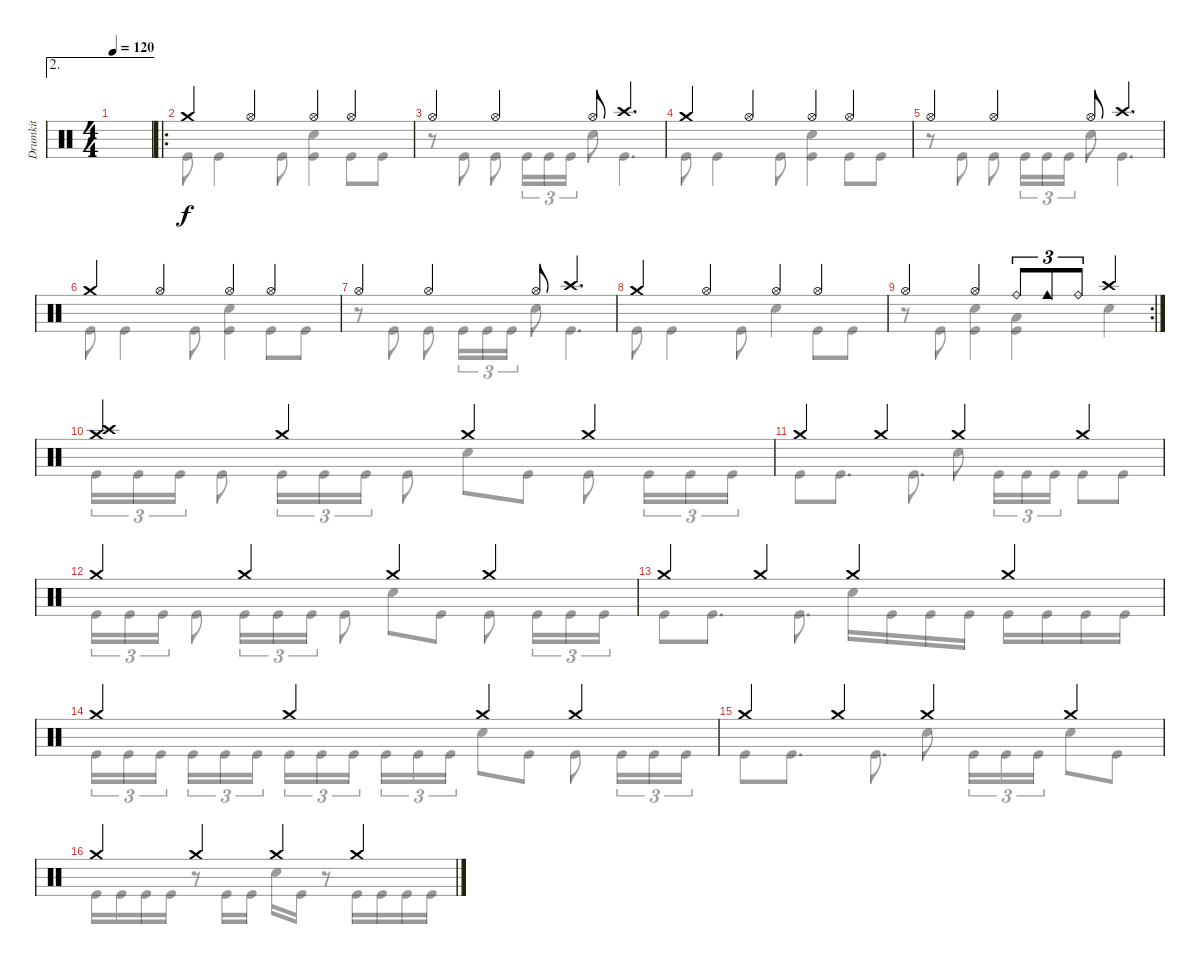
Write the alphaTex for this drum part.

\track ("Drumkit" "Drumkit") {instrument percussion}
\staff {score}
\articulation defaults
\voice
\ae 2
\ts (4 4)
\tempo 120
\clef neutral
\ks c
|
\ro "Crash medium (hit)".4 "Hi-Hat (open)".4 "Hi-Hat (open)".4 "Hi-Hat (open)".4
|
"Hi-Hat (open)".4 "Hi-Hat (open)".4 "Hi-Hat (open)".8 "Crash high (hit)".4{d} |
"Crash medium (hit)".4 "Hi-Hat (open)".4 "Hi-Hat (open)".4 "Hi-Hat (open)".4 |
"Hi-Hat (open)".4 "Hi-Hat (open)".4 "Hi-Hat (open)".8 "Crash high (hit)".4{d} |
"Crash medium (hit)".4 "Hi-Hat (open)".4 "Hi-Hat (open)".4 "Hi-Hat (open)".4 |
"Hi-Hat (open)".4 "Hi-Hat (open)".4 "Hi-Hat (open)".8 "Crash high (hit)".4{d} |
"Crash medium (hit)".4 "Hi-Hat (open)".4 "Hi-Hat (open)".4 "Hi-Hat (open)".4 |
\rc 2 "Hi-Hat (open)".4 "Hi-Hat (open)".4 "Ride (bell)".8{tu (3 2)} "Cowbell medium (hit)".8{tu (3 2)} "Ride (bell)".8{tu (3 2)} "Crash high (hit)".4
|
("Crash high (hit)" "Crash medium (hit)").4 "Crash medium (hit)".4 "Crash medium (hit)".4 "Crash medium (hit)".4 |
"Crash medium (hit)".4 "Crash medium (hit)".4 "Crash medium (hit)".4 "Crash medium (hit)".4 |
"Crash medium (hit)".4 "Crash medium (hit)".4 "Crash medium (hit)".4 "Crash medium (hit)".4 |
"Crash medium (hit)".4 "Crash medium (hit)".4 "Crash medium (hit)".4 "Crash medium (hit)".4 |
"Crash medium (hit)".4 "Crash medium (hit)".4 "Crash medium (hit)".4 "Crash medium (hit)".4 |
"Crash medium (hit)".4 "Crash medium (hit)".4 "Crash medium (hit)".4 "Crash medium (hit)".4 |
"Crash medium (hit)".4 "Crash medium (hit)".4 "Crash medium (hit)".4 "Crash medium (hit)".4
\voice
\clef neutral
\ottava regular
\simile none
\ks c
|
"Kick (hit)".8 "Kick (hit)".4 "Kick (hit)".8 ("Snare (hit) 2" "Kick (hit)").4 "Kick (hit)".8 "Kick (hit)".8 |
r.8 "Kick (hit)".8 "Kick (hit)".8 "Kick (hit)".16{tu (3 2)} "Kick (hit)".16{tu (3 2)} "Kick (hit)".16{tu (3 2)} "Snare (hit) 2".8 "Kick (hit)".4{d} |
"Kick (hit)".8 "Kick (hit)".4 "Kick (hit)".8 ("Snare (hit) 2" "Kick (hit)").4 "Kick (hit)".8 "Kick (hit)".8 |
r.8 "Kick (hit)".8 "Kick (hit)".8 "Kick (hit)".16{tu (3 2)} "Kick (hit)".16{tu (3 2)} "Kick (hit)".16{tu (3 2)} "Snare (hit) 2".8 "Kick (hit)".4{d} |
"Kick (hit)".8 "Kick (hit)".4 "Kick (hit)".8 ("Snare (hit) 2" "Kick (hit)").4 "Kick (hit)".8 "Kick (hit)".8 |
r.8 "Kick (hit)".8 "Kick (hit)".8 "Kick (hit)".16{tu (3 2)} "Kick (hit)".16{tu (3 2)} "Kick (hit)".16{tu (3 2)} "Snare (hit) 2".8 "Kick (hit)".4{d} |
"Kick (hit)".8 "Kick (hit)".4 "Kick (hit)".8 "Snare (hit) 2".4 "Kick (hit)".8 "Kick (hit)".8 |
r.8 "Kick (hit)".8 ("Snare (hit) 2" "Kick (hit)").4 ("Low Floor Tom (hit)" "Kick (hit)").4 "Snare (hit) 2".4 |
"Kick (hit)".16{tu (3 2)} "Kick (hit)".16{tu (3 2)} "Kick (hit)".16{tu (3 2)} "Kick (hit)".8 "Kick (hit)".16{tu (3 2)} "Kick (hit)".16{tu (3 2)} "Kick (hit)".16{tu (3 2)} "Kick (hit)".8 "Snare (hit) 2".8 "Kick (hit)".8 "Kick (hit)".8 "Kick (hit)".16{tu (3 2)} "Kick (hit)".16{tu (3 2)} "Kick (hit)".16{tu (3 2)} |
"Kick (hit)".8 "Kick (hit)".8{d} "Kick (hit)".8{d} "Snare (hit) 2".8 "Kick (hit)".16{tu (3 2)} "Kick (hit)".16{tu (3 2)} "Kick (hit)".16{tu (3 2)} "Kick (hit)".8 "Kick (hit)".8 |
"Kick (hit)".16{tu (3 2)} "Kick (hit)".16{tu (3 2)} "Kick (hit)".16{tu (3 2)} "Kick (hit)".8 "Kick (hit)".16{tu (3 2)} "Kick (hit)".16{tu (3 2)} "Kick (hit)".16{tu (3 2)} "Kick (hit)".8 "Snare (hit) 2".8 "Kick (hit)".8 "Kick (hit)".8 "Kick (hit)".16{tu (3 2)} "Kick (hit)".16{tu (3 2)} "Kick (hit)".16{tu (3 2)} |
"Kick (hit)".8 "Kick (hit)".8{d} "Kick (hit)".8{d} "Snare (hit) 2".16 "Kick (hit)".16 "Kick (hit)".16 "Kick (hit)".16 "Kick (hit)".16 "Kick (hit)".16 "Kick (hit)".16 "Kick (hit)".16 |
"Kick (hit)".16{tu (3 2)} "Kick (hit)".16{tu (3 2)} "Kick (hit)".16{tu (3 2) beam splitsecondary} "Kick (hit)".16{tu (3 2)} "Kick (hit)".16{tu (3 2)} "Kick (hit)".16{tu (3 2)} "Kick (hit)".16{tu (3 2)} "Kick (hit)".16{tu (3 2)} "Kick (hit)".16{tu (3 2) beam splitsecondary} "Kick (hit)".16{tu (3 2)} "Kick (hit)".16{tu (3 2)} "Kick (hit)".16{tu (3 2)} "Snare (hit) 2".8 "Kick (hit)".8 "Kick (hit)".8 "Kick (hit)".16{tu (3 2)} "Kick (hit)".16{tu (3 2)} "Kick (hit)".16{tu (3 2)} |
"Kick (hit)".8 "Kick (hit)".8{d} "Kick (hit)".8{d} "Snare (hit) 2".8 "Kick (hit)".16{tu (3 2)} "Kick (hit)".16{tu (3 2)} "Kick (hit)".16{tu (3 2)} "Snare (hit) 2".8 "Kick (hit)".8 |
"Kick (hit)".16 "Kick (hit)".16 "Kick (hit)".16 "Kick (hit)".16 r.8 "Kick (hit)".16 "Kick (hit)".16 "Snare (hit) 2".16 "Kick (hit)".16 r.8 "Kick (hit)".16 "Kick (hit)".16 "Kick (hit)".16 "Kick (hit)".16
